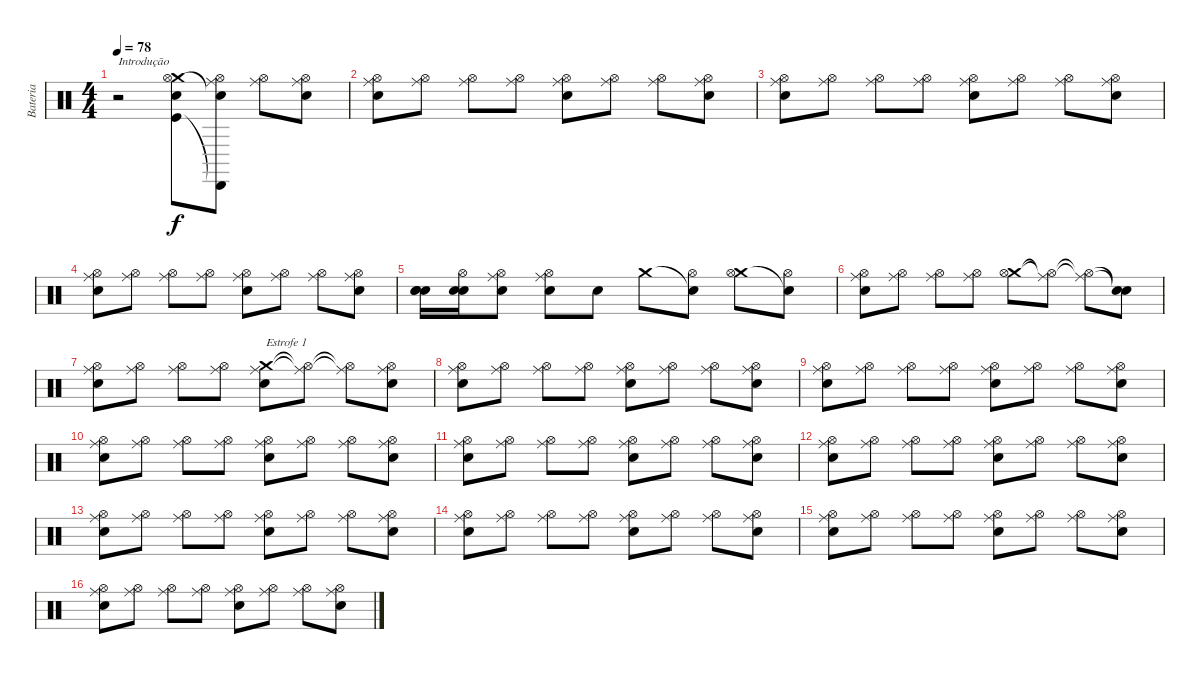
\track ("Bateria" "Bateria") {instrument percussion}
\staff {score}
\articulation defaults
\ts (4 4)
\tempo 78
\clef neutral
\ks c
r.2{txt "Introdução" dy f} ("Kick (hit)" "Crash medium (hit)" "Snare (hit) 2" "Hi-Hat (open)").8 ("Cabasa (hit)"{t} "Snare (hit) 2"{t} "Hi-Hat (open)" "Ride (middle)").8 ("Hi-Hat (open)" "Ride (middle)").8 ("Hi-Hat (open)" "Ride (middle)" "Snare (hit) 2").8 |
("Hi-Hat (open)" "Ride (middle)" "Snare (hit) 2").8 ("Hi-Hat (open)" "Ride (middle)").8 ("Hi-Hat (open)" "Ride (middle)").8 ("Hi-Hat (open)" "Ride (middle)").8 ("Hi-Hat (open)" "Ride (middle)" "Snare (hit) 2").8 ("Hi-Hat (open)" "Ride (middle)").8 ("Hi-Hat (open)" "Ride (middle)").8 ("Hi-Hat (open)" "Ride (middle)" "Snare (hit) 2").8 |
("Hi-Hat (open)" "Ride (middle)" "Snare (hit) 2").8 ("Hi-Hat (open)" "Ride (middle)").8 ("Hi-Hat (open)" "Ride (middle)").8 ("Hi-Hat (open)" "Ride (middle)").8 ("Hi-Hat (open)" "Ride (middle)" "Snare (hit) 2").8 ("Hi-Hat (open)" "Ride (middle)").8 ("Hi-Hat (open)" "Ride (middle)").8 ("Hi-Hat (open)" "Ride (middle)" "Snare (hit) 2").8 |
("Hi-Hat (open)" "Ride (middle)" "Snare (hit) 2").8 ("Hi-Hat (open)" "Ride (middle)").8 ("Hi-Hat (open)" "Ride (middle)").8 ("Hi-Hat (open)" "Ride (middle)").8 ("Hi-Hat (open)" "Ride (middle)" "Snare (hit) 2").8 ("Hi-Hat (open)" "Ride (middle)").8 ("Hi-Hat (open)" "Ride (middle)").8 ("Hi-Hat (open)" "Ride (middle)" "Snare (hit) 2").8 |
("Electric Snare (hit)" "Electric Snare (hit)" "Electric Snare (hit)").16 ("Hi-Hat (open)" "Snare (hit) 2" "Electric Snare (hit)").16 ("Hi-Hat (open)" "Ride (middle)" "Electric Snare (hit)").8 ("Hi-Hat (open)" "Ride (middle)" "Snare (hit) 2").8 "Electric Snare (hit)".8 "Crash medium (hit)".8 ("Snare (hit)"{t} "Hi-Hat (open)").8 ("Crash medium (hit)" "Hi-Hat (open)").8 ("Snare (hit)"{t} "Hi-Hat (open)").8 |
("Hi-Hat (open)" "Ride (middle)" "Snare (hit) 2").8 ("Hi-Hat (open)" "Ride (middle)").8 ("Hi-Hat (open)" "Ride (middle)").8 ("Hi-Hat (open)" "Ride (middle)").8 ("Crash medium (hit)" "Hi-Hat (open)").8 ("Hi-Hat (open)"{t} "Ride (middle)"{t}).8 ("Hi-Hat (open)"{t} "Ride (middle)"{t}).8 ("Snare (hit)"{t} "Snare (hit)"{t}).8 |
("Hi-Hat (open)" "Ride (middle)" "Snare (hit) 2").8 ("Hi-Hat (open)" "Ride (middle)").8 ("Hi-Hat (open)" "Ride (middle)").8 ("Hi-Hat (open)" "Ride (middle)").8 ("Crash medium (hit)" "Ride (middle)" "Snare (hit) 2").8{txt "Estrofe 1"} ("Hi-Hat (open)"{t} "Ride (middle)"{t}).8 ("Hi-Hat (open)"{t} "Ride (middle)"{t}).8 ("Hi-Hat (open)" "Ride (middle)" "Snare (hit) 2").8 |
("Hi-Hat (open)" "Ride (middle)" "Snare (hit) 2").8 ("Hi-Hat (open)" "Ride (middle)").8 ("Hi-Hat (open)" "Ride (middle)").8 ("Hi-Hat (open)" "Ride (middle)").8 ("Hi-Hat (open)" "Ride (middle)" "Snare (hit) 2").8 ("Hi-Hat (open)" "Ride (middle)").8 ("Hi-Hat (open)" "Ride (middle)").8 ("Hi-Hat (open)" "Ride (middle)" "Snare (hit) 2").8 |
("Hi-Hat (open)" "Ride (middle)" "Snare (hit) 2").8 ("Hi-Hat (open)" "Ride (middle)").8 ("Hi-Hat (open)" "Ride (middle)").8 ("Hi-Hat (open)" "Ride (middle)").8 ("Hi-Hat (open)" "Ride (middle)" "Snare (hit) 2").8 ("Hi-Hat (open)" "Ride (middle)").8 ("Hi-Hat (open)" "Ride (middle)").8 ("Hi-Hat (open)" "Ride (middle)" "Snare (hit) 2").8 |
("Hi-Hat (open)" "Ride (middle)" "Snare (hit) 2").8 ("Hi-Hat (open)" "Ride (middle)").8 ("Hi-Hat (open)" "Ride (middle)").8 ("Hi-Hat (open)" "Ride (middle)").8 ("Hi-Hat (open)" "Ride (middle)" "Snare (hit) 2").8 ("Hi-Hat (open)" "Ride (middle)").8 ("Hi-Hat (open)" "Ride (middle)").8 ("Hi-Hat (open)" "Ride (middle)" "Snare (hit) 2").8 |
("Hi-Hat (open)" "Ride (middle)" "Snare (hit) 2").8 ("Hi-Hat (open)" "Ride (middle)").8 ("Hi-Hat (open)" "Ride (middle)").8 ("Hi-Hat (open)" "Ride (middle)").8 ("Hi-Hat (open)" "Ride (middle)" "Snare (hit) 2").8 ("Hi-Hat (open)" "Ride (middle)").8 ("Hi-Hat (open)" "Ride (middle)").8 ("Hi-Hat (open)" "Ride (middle)" "Snare (hit) 2").8 |
("Hi-Hat (open)" "Ride (middle)" "Snare (hit) 2").8 ("Hi-Hat (open)" "Ride (middle)").8 ("Hi-Hat (open)" "Ride (middle)").8 ("Hi-Hat (open)" "Ride (middle)").8 ("Hi-Hat (open)" "Ride (middle)" "Snare (hit) 2").8 ("Hi-Hat (open)" "Ride (middle)").8 ("Hi-Hat (open)" "Ride (middle)").8 ("Hi-Hat (open)" "Ride (middle)" "Snare (hit) 2").8 |
("Hi-Hat (open)" "Ride (middle)" "Snare (hit) 2").8 ("Hi-Hat (open)" "Ride (middle)").8 ("Hi-Hat (open)" "Ride (middle)").8 ("Hi-Hat (open)" "Ride (middle)").8 ("Hi-Hat (open)" "Ride (middle)" "Snare (hit) 2").8 ("Hi-Hat (open)" "Ride (middle)").8 ("Hi-Hat (open)" "Ride (middle)").8 ("Hi-Hat (open)" "Ride (middle)" "Snare (hit) 2").8 |
("Hi-Hat (open)" "Ride (middle)" "Snare (hit) 2").8 ("Hi-Hat (open)" "Ride (middle)").8 ("Hi-Hat (open)" "Ride (middle)").8 ("Hi-Hat (open)" "Ride (middle)").8 ("Hi-Hat (open)" "Ride (middle)" "Snare (hit) 2").8 ("Hi-Hat (open)" "Ride (middle)").8 ("Hi-Hat (open)" "Ride (middle)").8 ("Hi-Hat (open)" "Ride (middle)" "Snare (hit) 2").8 |
("Hi-Hat (open)" "Ride (middle)" "Snare (hit) 2").8 ("Hi-Hat (open)" "Ride (middle)").8 ("Hi-Hat (open)" "Ride (middle)").8 ("Hi-Hat (open)" "Ride (middle)").8 ("Hi-Hat (open)" "Ride (middle)" "Snare (hit) 2").8 ("Hi-Hat (open)" "Ride (middle)").8 ("Hi-Hat (open)" "Ride (middle)").8 ("Hi-Hat (open)" "Ride (middle)" "Snare (hit) 2").8 |
("Hi-Hat (open)" "Ride (middle)" "Snare (hit) 2").8 ("Hi-Hat (open)" "Ride (middle)").8 ("Hi-Hat (open)" "Ride (middle)").8 ("Hi-Hat (open)" "Ride (middle)").8 ("Hi-Hat (open)" "Ride (middle)" "Snare (hit) 2").8 ("Hi-Hat (open)" "Ride (middle)").8 ("Hi-Hat (open)" "Ride (middle)").8 ("Hi-Hat (open)" "Ride (middle)" "Snare (hit) 2").8
